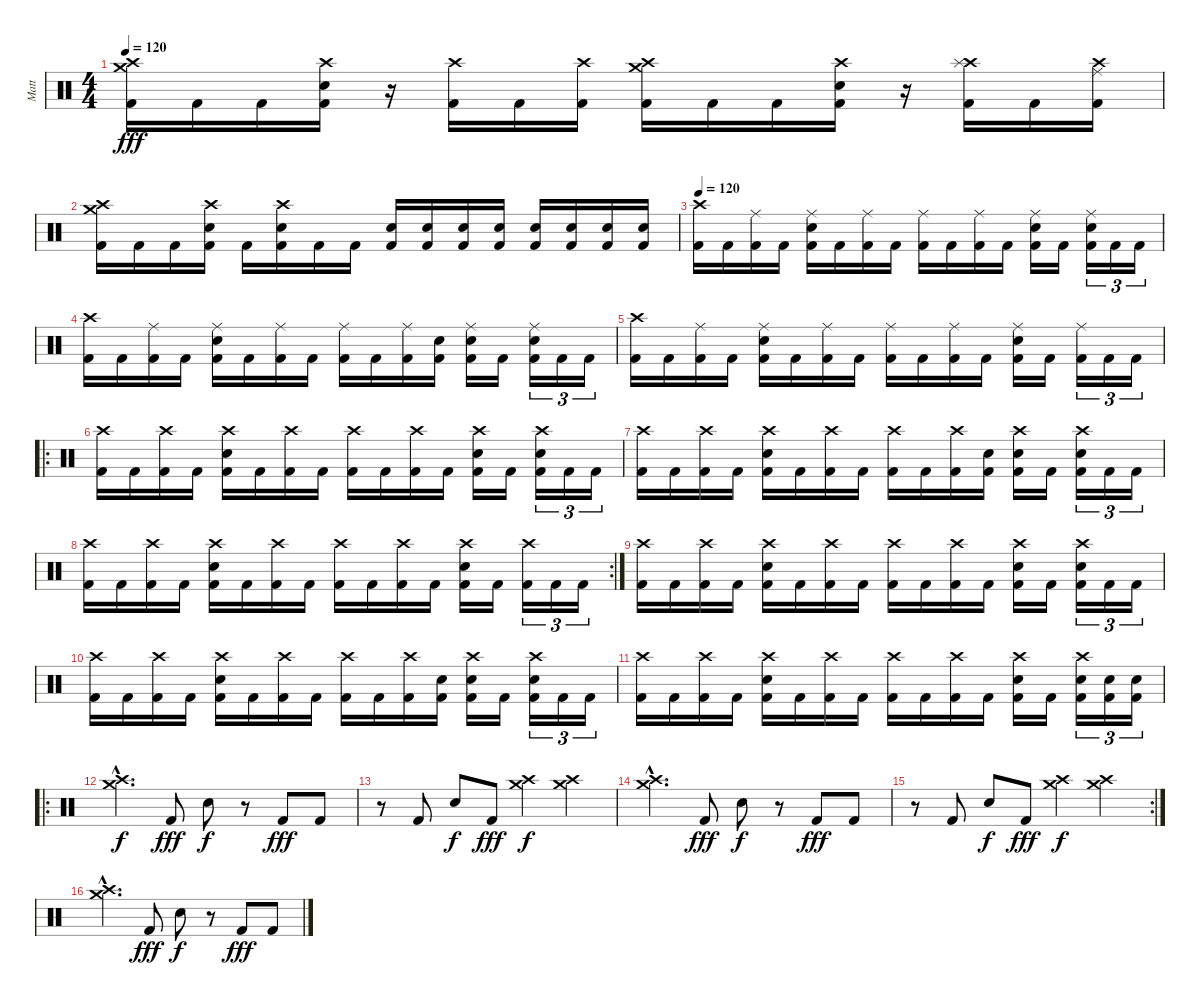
\track ("Matt" "Matt") {instrument percussion}
\staff {score}
\articulation defaults
\ts (4 4)
\tempo 120
\clef neutral
\ks c
("Crash high (hit)" "Crash medium (hit)" "Kick (hit) 2").16{dy fff} "Kick (hit) 2".16 "Kick (hit) 2".16 ("Crash high (hit)" "Electric Snare (hit)" "Kick (hit) 2").16 r.16 ("Crash high (hit)" "Kick (hit) 2").16 "Kick (hit) 2".16 ("Crash high (hit)" "Kick (hit) 2").16 ("Crash high (hit)" "Crash medium (hit)" "Kick (hit) 2").16 "Kick (hit) 2".16 "Kick (hit) 2".16 ("Crash high (hit)" "Electric Snare (hit)" "Kick (hit) 2").16 r.16 ("Crash high (hit)" "Splash (hit)" "Kick (hit) 2").16 "Kick (hit) 2".16 ("Crash high (hit)" "Ride (middle)" "Kick (hit) 2").16 |
("Crash high (hit)" "Crash medium (hit)" "Kick (hit) 2").16 "Kick (hit) 2".16 "Kick (hit) 2".16 ("Crash high (hit)" "Electric Snare (hit)" "Kick (hit) 2").16 "Kick (hit) 2".16 ("Crash high (hit)" "Electric Snare (hit)" "Kick (hit) 2").16 "Kick (hit) 2".16 "Kick (hit) 2".16 ("Electric Snare (hit)" "Kick (hit) 2").16 ("Electric Snare (hit)" "Kick (hit) 2").16 ("Electric Snare (hit)" "Kick (hit) 2").16 ("Electric Snare (hit)" "Kick (hit) 2").16 ("Electric Snare (hit)" "Kick (hit) 2").16 ("Electric Snare (hit)" "Kick (hit) 2").16 ("Electric Snare (hit)" "Kick (hit) 2").16 ("Electric Snare (hit)" "Kick (hit) 2").16 |
\tempo 120
("Crash high (hit)" "Kick (hit) 2").16 "Kick (hit) 2".16 ("Ride (middle)" "Kick (hit) 2").16 "Kick (hit) 2".16 ("Ride (middle)" "Electric Snare (hit)" "Kick (hit) 2").16 "Kick (hit) 2".16 ("Ride (middle)" "Kick (hit) 2").16 "Kick (hit) 2".16 ("Ride (middle)" "Kick (hit) 2").16 "Kick (hit) 2".16 ("Ride (middle)" "Kick (hit) 2").16 "Kick (hit) 2".16 ("Ride (middle)" "Electric Snare (hit)" "Kick (hit) 2").16 "Kick (hit) 2".16 ("Ride (middle)" "Electric Snare (hit)" "Kick (hit) 2").16{tu (3 2)} "Kick (hit) 2".16{tu (3 2)} "Kick (hit) 2".16{tu (3 2)} |
("Crash high (hit)" "Kick (hit) 2").16 "Kick (hit) 2".16 ("Ride (middle)" "Kick (hit) 2").16 "Kick (hit) 2".16 ("Ride (middle)" "Electric Snare (hit)" "Kick (hit) 2").16 "Kick (hit) 2".16 ("Ride (middle)" "Kick (hit) 2").16 "Kick (hit) 2".16 ("Ride (middle)" "Kick (hit) 2").16 "Kick (hit) 2".16 ("Ride (middle)" "Kick (hit) 2").16 ("Electric Snare (hit)" "Kick (hit) 2").16 ("Ride (middle)" "Electric Snare (hit)" "Kick (hit) 2").16 "Kick (hit) 2".16 ("Ride (middle)" "Electric Snare (hit)" "Kick (hit) 2").16{tu (3 2)} "Kick (hit) 2".16{tu (3 2)} "Kick (hit) 2".16{tu (3 2)} |
("Crash high (hit)" "Kick (hit) 2").16 "Kick (hit) 2".16 ("Ride (middle)" "Kick (hit) 2").16 "Kick (hit) 2".16 ("Ride (middle)" "Electric Snare (hit)" "Kick (hit) 2").16 "Kick (hit) 2".16 ("Ride (middle)" "Kick (hit) 2").16 "Kick (hit) 2".16 ("Ride (middle)" "Kick (hit) 2").16 "Kick (hit) 2".16 ("Ride (middle)" "Kick (hit) 2").16 "Kick (hit) 2".16 ("Ride (middle)" "Electric Snare (hit)" "Kick (hit) 2").16 "Kick (hit) 2".16 ("Ride (middle)" "Kick (hit) 2").16{tu (3 2)} "Kick (hit) 2".16{tu (3 2)} "Kick (hit) 2".16{tu (3 2)} |
\ro
("Crash high (hit)" "Kick (hit) 2").16 "Kick (hit) 2".16 ("Crash high (hit)" "Kick (hit) 2").16 "Kick (hit) 2".16 ("Crash high (hit)" "Electric Snare (hit)" "Kick (hit) 2").16 "Kick (hit) 2".16 ("Crash high (hit)" "Kick (hit) 2").16 "Kick (hit) 2".16 ("Crash high (hit)" "Kick (hit) 2").16 "Kick (hit) 2".16 ("Crash high (hit)" "Kick (hit) 2").16 "Kick (hit) 2".16 ("Crash high (hit)" "Electric Snare (hit)" "Kick (hit) 2").16 "Kick (hit) 2".16 ("Crash high (hit)" "Electric Snare (hit)" "Kick (hit) 2").16{tu (3 2)} "Kick (hit) 2".16{tu (3 2)} "Kick (hit) 2".16{tu (3 2)} |
("Crash high (hit)" "Kick (hit) 2").16 "Kick (hit) 2".16 ("Crash high (hit)" "Kick (hit) 2").16 "Kick (hit) 2".16 ("Crash high (hit)" "Electric Snare (hit)" "Kick (hit) 2").16 "Kick (hit) 2".16 ("Crash high (hit)" "Kick (hit) 2").16 "Kick (hit) 2".16 ("Crash high (hit)" "Kick (hit) 2").16 "Kick (hit) 2".16 ("Crash high (hit)" "Kick (hit) 2").16 ("Electric Snare (hit)" "Kick (hit) 2").16 ("Crash high (hit)" "Electric Snare (hit)" "Kick (hit) 2").16 "Kick (hit) 2".16 ("Crash high (hit)" "Electric Snare (hit)" "Kick (hit) 2").16{tu (3 2)} "Kick (hit) 2".16{tu (3 2)} "Kick (hit) 2".16{tu (3 2)} |
\rc 2
("Crash high (hit)" "Kick (hit) 2").16 "Kick (hit) 2".16 ("Crash high (hit)" "Kick (hit) 2").16 "Kick (hit) 2".16 ("Crash high (hit)" "Electric Snare (hit)" "Kick (hit) 2").16 "Kick (hit) 2".16 ("Crash high (hit)" "Kick (hit) 2").16 "Kick (hit) 2".16 ("Crash high (hit)" "Kick (hit) 2").16 "Kick (hit) 2".16 ("Crash high (hit)" "Kick (hit) 2").16 "Kick (hit) 2".16 ("Crash high (hit)" "Electric Snare (hit)" "Kick (hit) 2").16 "Kick (hit) 2".16 ("Crash high (hit)" "Kick (hit) 2").16{tu (3 2)} "Kick (hit) 2".16{tu (3 2)} "Kick (hit) 2".16{tu (3 2)} |
("Crash high (hit)" "Kick (hit) 2").16 "Kick (hit) 2".16 ("Crash high (hit)" "Kick (hit) 2").16 "Kick (hit) 2".16 ("Crash high (hit)" "Electric Snare (hit)" "Kick (hit) 2").16 "Kick (hit) 2".16 ("Crash high (hit)" "Kick (hit) 2").16 "Kick (hit) 2".16 ("Crash high (hit)" "Kick (hit) 2").16 "Kick (hit) 2".16 ("Crash high (hit)" "Kick (hit) 2").16 "Kick (hit) 2".16 ("Crash high (hit)" "Electric Snare (hit)" "Kick (hit) 2").16 "Kick (hit) 2".16 ("Crash high (hit)" "Electric Snare (hit)" "Kick (hit) 2").16{tu (3 2)} "Kick (hit) 2".16{tu (3 2)} "Kick (hit) 2".16{tu (3 2)} |
("Crash high (hit)" "Kick (hit) 2").16 "Kick (hit) 2".16 ("Crash high (hit)" "Kick (hit) 2").16 "Kick (hit) 2".16 ("Crash high (hit)" "Electric Snare (hit)" "Kick (hit) 2").16 "Kick (hit) 2".16 ("Crash high (hit)" "Kick (hit) 2").16 "Kick (hit) 2".16 ("Crash high (hit)" "Kick (hit) 2").16 "Kick (hit) 2".16 ("Crash high (hit)" "Kick (hit) 2").16 ("Electric Snare (hit)" "Kick (hit) 2").16 ("Crash high (hit)" "Electric Snare (hit)" "Kick (hit) 2").16 "Kick (hit) 2".16 ("Crash high (hit)" "Electric Snare (hit)" "Kick (hit) 2").16{tu (3 2)} "Kick (hit) 2".16{tu (3 2)} "Kick (hit) 2".16{tu (3 2)} |
("Crash high (hit)" "Kick (hit) 2").16 "Kick (hit) 2".16 ("Crash high (hit)" "Kick (hit) 2").16 "Kick (hit) 2".16 ("Crash high (hit)" "Electric Snare (hit)" "Kick (hit) 2").16 "Kick (hit) 2".16 ("Crash high (hit)" "Kick (hit) 2").16 "Kick (hit) 2".16 ("Crash high (hit)" "Kick (hit) 2").16 "Kick (hit) 2".16 ("Crash high (hit)" "Kick (hit) 2").16 "Kick (hit) 2".16 ("Crash high (hit)" "Electric Snare (hit)" "Kick (hit) 2").16 "Kick (hit) 2".16 ("Crash high (hit)" "Electric Snare (hit)" "Kick (hit) 2").16{tu (3 2)} ("Electric Snare (hit)" "Kick (hit) 2").16{tu (3 2)} ("Electric Snare (hit)" "Kick (hit) 2").16{tu (3 2)} |
\ro
("Crash high (hit)"{hac} "Crash medium (hit)"{hac}).4{d dy f} "Kick (hit) 2".8{dy fff} "Electric Snare (hit)".8{dy f} r.8 "Kick (hit) 2".8{dy fff} "Kick (hit) 2".8 |
r.8 "Kick (hit) 2".8 "Electric Snare (hit)".8{dy f} "Kick (hit) 2".8{dy fff} ("Crash high (hit)" "Crash medium (hit)").4{dy f} ("Crash high (hit)" "Crash medium (hit)").4 |
("Crash high (hit)"{hac} "Crash medium (hit)"{hac}).4{d} "Kick (hit) 2".8{dy fff} "Electric Snare (hit)".8{dy f} r.8 "Kick (hit) 2".8{dy fff} "Kick (hit) 2".8 |
\rc 2
r.8 "Kick (hit) 2".8 "Electric Snare (hit)".8{dy f} "Kick (hit) 2".8{dy fff} ("Crash high (hit)" "Crash medium (hit)").4{dy f} ("Crash high (hit)" "Crash medium (hit)").4 |
("Crash high (hit)"{hac} "Crash medium (hit)"{hac}).4{d} "Kick (hit) 2".8{dy fff} "Electric Snare (hit)".8{dy f} r.8 "Kick (hit) 2".8{dy fff} "Kick (hit) 2".8
